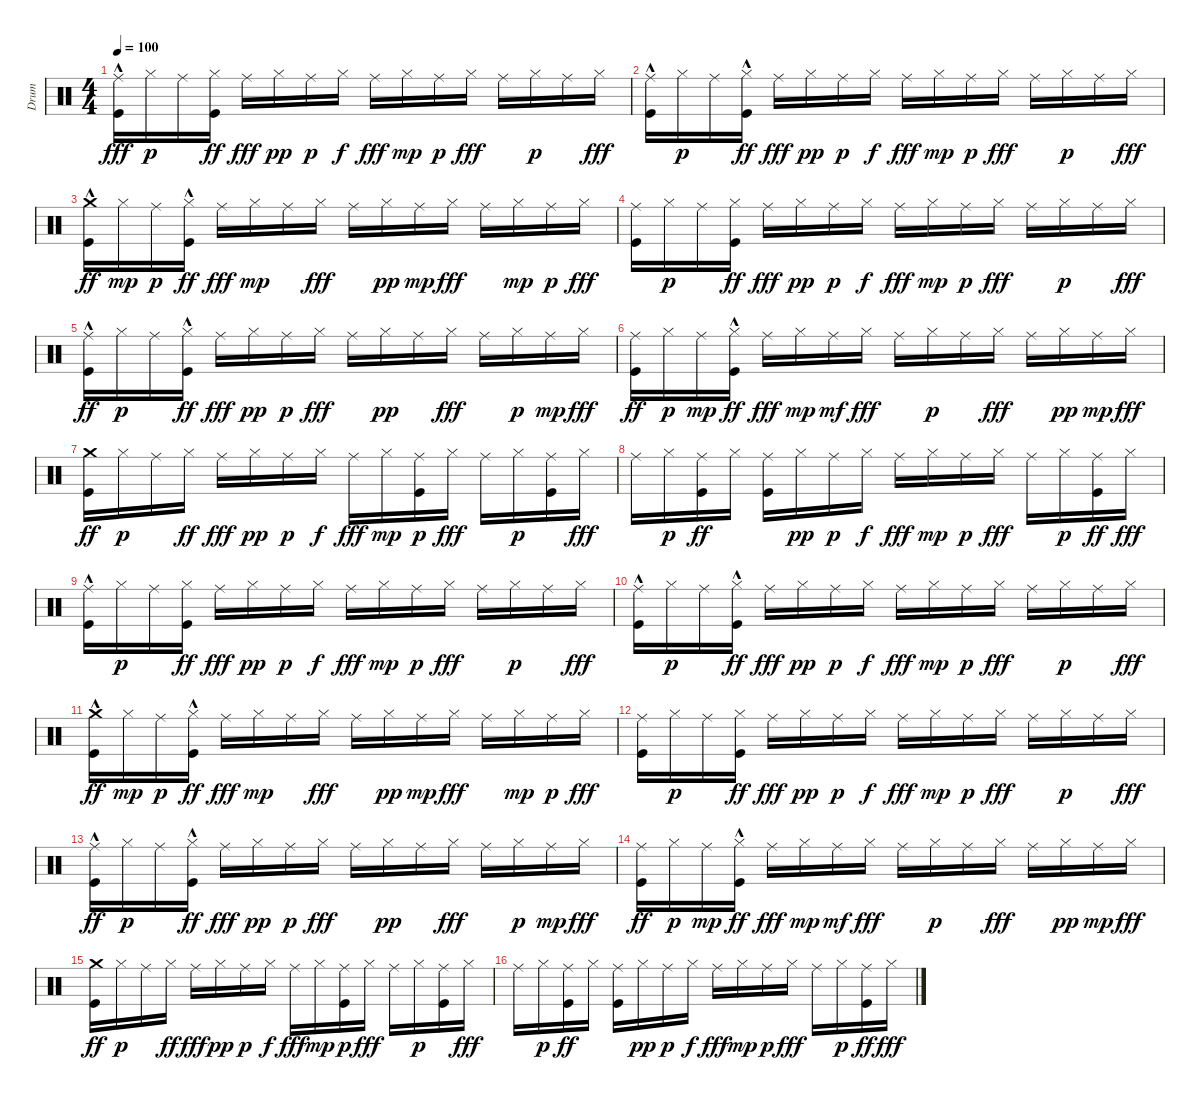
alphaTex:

\track ("Drum" "Drum") {instrument percussion}
\staff {score}
\articulation defaults
\ts (4 4)
\tempo 100
\clef neutral
\ks c
("Kick (hit)"{hac} "Ride (middle)").16{dy fff} "Hi-Hat (closed)".16{dy p} "Ride (middle)".16 ("Hi-Hat (closed)" "Kick (hit)").16{dy ff} "Ride (middle)".16{dy fff} "Hi-Hat (closed)".16{dy pp} "Ride (middle)".16{dy p} "Hi-Hat (closed)".16{dy f} "Ride (middle)".16{dy fff} "Hi-Hat (closed)".16{dy mp} "Ride (middle)".16{dy p} "Hi-Hat (closed)".16{dy fff} "Ride (middle)".16 "Hi-Hat (closed)".16{dy p} "Ride (middle)".16 "Hi-Hat (closed)".16{dy fff} |
("Kick (hit)"{hac} "Ride (middle)").16 "Hi-Hat (closed)".16{dy p} "Ride (middle)".16 ("Hi-Hat (closed)" "Kick (hit)"{hac}).16{dy ff} "Ride (middle)".16{dy fff} "Hi-Hat (closed)".16{dy pp} "Ride (middle)".16{dy p} "Hi-Hat (closed)".16{dy f} "Ride (middle)".16{dy fff} "Hi-Hat (closed)".16{dy mp} "Ride (middle)".16{dy p} "Hi-Hat (closed)".16{dy fff} "Ride (middle)".16 "Hi-Hat (closed)".16{dy p} "Ride (middle)".16 "Hi-Hat (closed)".16{dy fff} |
("Crash medium (hit)" "Kick (hit)"{hac}).16{dy ff} "Hi-Hat (closed)".16{dy mp} "Ride (middle)".16{dy p} ("Hi-Hat (closed)" "Kick (hit)"{hac}).16{dy ff} "Ride (middle)".16{dy fff} "Hi-Hat (closed)".16{dy mp} "Ride (middle)".16 "Hi-Hat (closed)".16{dy fff} "Ride (middle)".16 "Hi-Hat (closed)".16{dy pp} "Ride (middle)".16{dy mp} "Hi-Hat (closed)".16{dy fff} "Ride (middle)".16 "Hi-Hat (closed)".16{dy mp} "Ride (middle)".16{dy p} "Hi-Hat (closed)".16{dy fff} |
("Kick (hit)" "Ride (middle)").16 "Hi-Hat (closed)".16{dy p} "Ride (middle)".16 ("Kick (hit)" "Hi-Hat (closed)").16{dy ff} "Ride (middle)".16{dy fff} "Hi-Hat (closed)".16{dy pp} "Ride (middle)".16{dy p} "Hi-Hat (closed)".16{dy f} "Ride (middle)".16{dy fff} "Hi-Hat (closed)".16{dy mp} "Ride (middle)".16{dy p} "Hi-Hat (closed)".16{dy fff} "Ride (middle)".16 "Hi-Hat (closed)".16{dy p} "Ride (middle)".16 "Hi-Hat (closed)".16{dy fff} |
("Ride (middle)" "Kick (hit)"{hac}).16{dy ff} "Hi-Hat (closed)".16{dy p} "Ride (middle)".16 ("Hi-Hat (closed)" "Kick (hit)"{hac}).16{dy ff} "Ride (middle)".16{dy fff} "Hi-Hat (closed)".16{dy pp} "Ride (middle)".16{dy p} "Hi-Hat (closed)".16{dy fff} "Ride (middle)".16 "Hi-Hat (closed)".16{dy pp} "Ride (middle)".16 "Hi-Hat (closed)".16{dy fff} "Ride (middle)".16 "Hi-Hat (closed)".16{dy p} "Ride (middle)".16{dy mp} "Hi-Hat (closed)".16{dy fff} |
("Ride (middle)" "Kick (hit)").16{dy ff} "Hi-Hat (closed)".16{dy p} "Ride (middle)".16{dy mp} ("Hi-Hat (closed)" "Kick (hit)"{hac}).16{dy ff} "Ride (middle)".16{dy fff} "Hi-Hat (closed)".16{dy mp} "Ride (middle)".16{dy mf} "Hi-Hat (closed)".16{dy fff} "Ride (middle)".16 "Hi-Hat (closed)".16{dy p} "Ride (middle)".16 "Hi-Hat (closed)".16{dy fff} "Ride (middle)".16 "Hi-Hat (closed)".16{dy pp} "Ride (middle)".16{dy mp} "Hi-Hat (closed)".16{dy fff} |
("Crash medium (hit)" "Kick (hit)").16{dy ff} "Hi-Hat (closed)".16{dy p} "Ride (middle)".16 "Hi-Hat (closed)".16{dy ff} "Ride (middle)".16{dy fff} "Hi-Hat (closed)".16{dy pp} "Ride (middle)".16{dy p} "Hi-Hat (closed)".16{dy f} "Ride (middle)".16{dy fff} "Hi-Hat (closed)".16{dy mp} ("Kick (hit)" "Ride (middle)").16{dy p} "Hi-Hat (closed)".16{dy fff} "Ride (middle)".16 "Hi-Hat (closed)".16{dy p} ("Kick (hit)" "Ride (middle)").16 "Hi-Hat (closed)".16{dy fff} |
"Ride (middle)".16 "Hi-Hat (closed)".16{dy p} ("Ride (middle)" "Kick (hit)").16{dy ff} "Hi-Hat (closed)".16 ("Ride (middle)" "Kick (hit)").16 "Hi-Hat (closed)".16{dy pp} "Ride (middle)".16{dy p} "Hi-Hat (closed)".16{dy f} "Ride (middle)".16{dy fff} "Hi-Hat (closed)".16{dy mp} "Ride (middle)".16{dy p} "Hi-Hat (closed)".16{dy fff} "Ride (middle)".16 "Hi-Hat (closed)".16{dy p} ("Ride (middle)" "Kick (hit)").16{dy ff} "Hi-Hat (closed)".16{dy fff} |
("Kick (hit)"{hac} "Ride (middle)").16 "Hi-Hat (closed)".16{dy p} "Ride (middle)".16 ("Hi-Hat (closed)" "Kick (hit)").16{dy ff} "Ride (middle)".16{dy fff} "Hi-Hat (closed)".16{dy pp} "Ride (middle)".16{dy p} "Hi-Hat (closed)".16{dy f} "Ride (middle)".16{dy fff} "Hi-Hat (closed)".16{dy mp} "Ride (middle)".16{dy p} "Hi-Hat (closed)".16{dy fff} "Ride (middle)".16 "Hi-Hat (closed)".16{dy p} "Ride (middle)".16 "Hi-Hat (closed)".16{dy fff} |
("Kick (hit)"{hac} "Ride (middle)").16 "Hi-Hat (closed)".16{dy p} "Ride (middle)".16 ("Hi-Hat (closed)" "Kick (hit)"{hac}).16{dy ff} "Ride (middle)".16{dy fff} "Hi-Hat (closed)".16{dy pp} "Ride (middle)".16{dy p} "Hi-Hat (closed)".16{dy f} "Ride (middle)".16{dy fff} "Hi-Hat (closed)".16{dy mp} "Ride (middle)".16{dy p} "Hi-Hat (closed)".16{dy fff} "Ride (middle)".16 "Hi-Hat (closed)".16{dy p} "Ride (middle)".16 "Hi-Hat (closed)".16{dy fff} |
("Crash medium (hit)" "Kick (hit)"{hac}).16{dy ff} "Hi-Hat (closed)".16{dy mp} "Ride (middle)".16{dy p} ("Hi-Hat (closed)" "Kick (hit)"{hac}).16{dy ff} "Ride (middle)".16{dy fff} "Hi-Hat (closed)".16{dy mp} "Ride (middle)".16 "Hi-Hat (closed)".16{dy fff} "Ride (middle)".16 "Hi-Hat (closed)".16{dy pp} "Ride (middle)".16{dy mp} "Hi-Hat (closed)".16{dy fff} "Ride (middle)".16 "Hi-Hat (closed)".16{dy mp} "Ride (middle)".16{dy p} "Hi-Hat (closed)".16{dy fff} |
("Kick (hit)" "Ride (middle)").16 "Hi-Hat (closed)".16{dy p} "Ride (middle)".16 ("Kick (hit)" "Hi-Hat (closed)").16{dy ff} "Ride (middle)".16{dy fff} "Hi-Hat (closed)".16{dy pp} "Ride (middle)".16{dy p} "Hi-Hat (closed)".16{dy f} "Ride (middle)".16{dy fff} "Hi-Hat (closed)".16{dy mp} "Ride (middle)".16{dy p} "Hi-Hat (closed)".16{dy fff} "Ride (middle)".16 "Hi-Hat (closed)".16{dy p} "Ride (middle)".16 "Hi-Hat (closed)".16{dy fff} |
("Ride (middle)" "Kick (hit)"{hac}).16{dy ff} "Hi-Hat (closed)".16{dy p} "Ride (middle)".16 ("Hi-Hat (closed)" "Kick (hit)"{hac}).16{dy ff} "Ride (middle)".16{dy fff} "Hi-Hat (closed)".16{dy pp} "Ride (middle)".16{dy p} "Hi-Hat (closed)".16{dy fff} "Ride (middle)".16 "Hi-Hat (closed)".16{dy pp} "Ride (middle)".16 "Hi-Hat (closed)".16{dy fff} "Ride (middle)".16 "Hi-Hat (closed)".16{dy p} "Ride (middle)".16{dy mp} "Hi-Hat (closed)".16{dy fff} |
("Ride (middle)" "Kick (hit)").16{dy ff} "Hi-Hat (closed)".16{dy p} "Ride (middle)".16{dy mp} ("Hi-Hat (closed)" "Kick (hit)"{hac}).16{dy ff} "Ride (middle)".16{dy fff} "Hi-Hat (closed)".16{dy mp} "Ride (middle)".16{dy mf} "Hi-Hat (closed)".16{dy fff} "Ride (middle)".16 "Hi-Hat (closed)".16{dy p} "Ride (middle)".16 "Hi-Hat (closed)".16{dy fff} "Ride (middle)".16 "Hi-Hat (closed)".16{dy pp} "Ride (middle)".16{dy mp} "Hi-Hat (closed)".16{dy fff} |
("Crash medium (hit)" "Kick (hit)").16{dy ff} "Hi-Hat (closed)".16{dy p} "Ride (middle)".16 "Hi-Hat (closed)".16{dy ff} "Ride (middle)".16{dy fff} "Hi-Hat (closed)".16{dy pp} "Ride (middle)".16{dy p} "Hi-Hat (closed)".16{dy f} "Ride (middle)".16{dy fff} "Hi-Hat (closed)".16{dy mp} ("Kick (hit)" "Ride (middle)").16{dy p} "Hi-Hat (closed)".16{dy fff} "Ride (middle)".16 "Hi-Hat (closed)".16{dy p} ("Kick (hit)" "Ride (middle)").16 "Hi-Hat (closed)".16{dy fff} |
"Ride (middle)".16 "Hi-Hat (closed)".16{dy p} ("Ride (middle)" "Kick (hit)").16{dy ff} "Hi-Hat (closed)".16 ("Ride (middle)" "Kick (hit)").16 "Hi-Hat (closed)".16{dy pp} "Ride (middle)".16{dy p} "Hi-Hat (closed)".16{dy f} "Ride (middle)".16{dy fff} "Hi-Hat (closed)".16{dy mp} "Ride (middle)".16{dy p} "Hi-Hat (closed)".16{dy fff} "Ride (middle)".16 "Hi-Hat (closed)".16{dy p} ("Ride (middle)" "Kick (hit)").16{dy ff} "Hi-Hat (closed)".16{dy fff}
